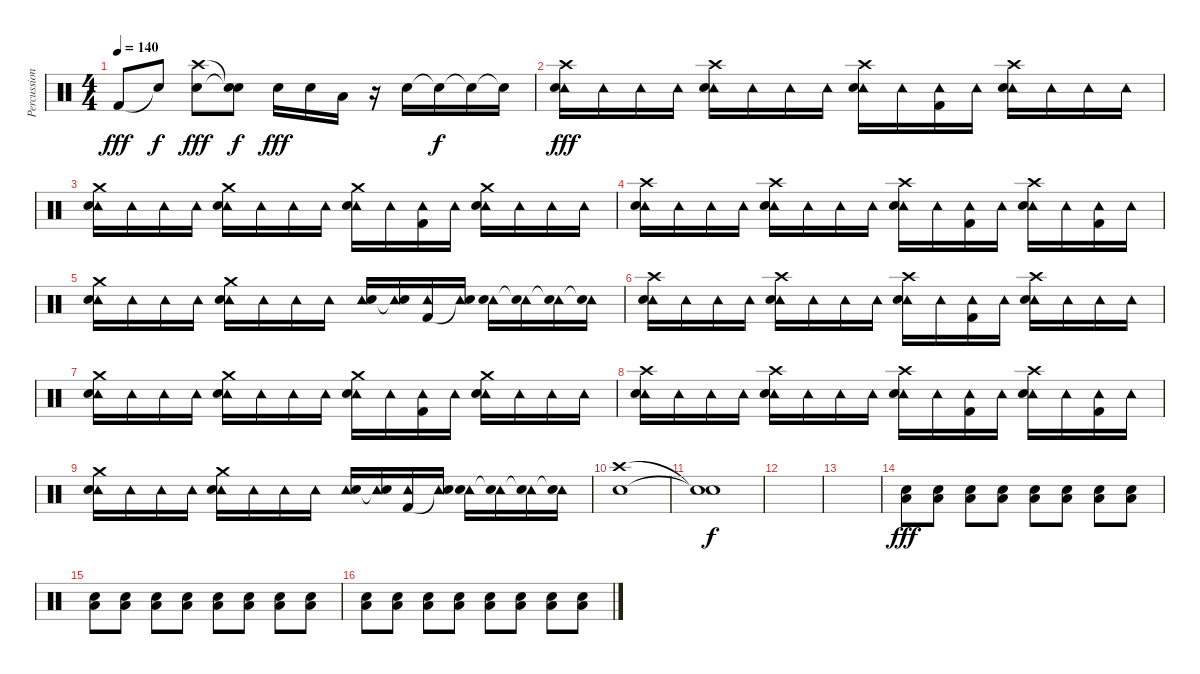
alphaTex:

\track ("Percussion" "Percussion") {instrument percussion}
\staff {score}
\articulation defaults
\ts (4 4)
\tempo 140
\clef neutral
\ks c "Kick (hit) 2".8{dy fff} "Snare (hit)"{t}.8{dy f}
("Crash high (hit)" "Electric Snare (hit)").8{dy fff} ("Snare (hit)"{t} "Snare (hit)"{t}).8{dy f} "Electric Snare (hit)".16{dy fff} "Electric Snare (hit)".16 "Low Floor Tom (hit)".16 r.16 "Electric Snare (hit)".16 "Snare (hit)"{t}.16{dy f} "Snare (hit)"{t}.16 "Snare (hit)"{t}.16 |
("Crash high (hit)" "Tambourine (hit)" "Electric Snare (hit)").16{dy fff} "Tambourine (hit)".16 "Tambourine (hit)".16 "Tambourine (hit)".16 ("Crash high (hit)" "Tambourine (hit)" "Electric Snare (hit)").16 "Tambourine (hit)".16 "Tambourine (hit)".16 "Tambourine (hit)".16 ("Crash high (hit)" "Tambourine (hit)" "Electric Snare (hit)").16 "Tambourine (hit)".16 ("Tambourine (hit)" "Kick (hit) 2").16 "Tambourine (hit)".16 ("Crash high (hit)" "Tambourine (hit)" "Electric Snare (hit)").16 "Tambourine (hit)".16 "Tambourine (hit)".16 "Tambourine (hit)".16 |
("Crash medium (hit)" "Tambourine (hit)" "Electric Snare (hit)").16 "Tambourine (hit)".16 "Tambourine (hit)".16 "Tambourine (hit)".16 ("Crash medium (hit)" "Tambourine (hit)" "Electric Snare (hit)").16 "Tambourine (hit)".16 "Tambourine (hit)".16 "Tambourine (hit)".16 ("Crash medium (hit)" "Tambourine (hit)" "Electric Snare (hit)").16 "Tambourine (hit)".16 ("Tambourine (hit)" "Kick (hit) 2").16 "Tambourine (hit)".16 ("Crash medium (hit)" "Tambourine (hit)" "Electric Snare (hit)").16 "Tambourine (hit)".16 "Tambourine (hit)".16 "Tambourine (hit)".16 |
("Crash high (hit)" "Tambourine (hit)" "Electric Snare (hit)").16 "Tambourine (hit)".16 "Tambourine (hit)".16 "Tambourine (hit)".16 ("Crash high (hit)" "Tambourine (hit)" "Electric Snare (hit)").16 "Tambourine (hit)".16 "Tambourine (hit)".16 "Tambourine (hit)".16 ("Crash high (hit)" "Tambourine (hit)" "Electric Snare (hit)").16 "Tambourine (hit)".16 ("Tambourine (hit)" "Kick (hit) 2").16 "Tambourine (hit)".16 ("Crash high (hit)" "Tambourine (hit)" "Electric Snare (hit)").16 "Tambourine (hit)".16 ("Tambourine (hit)" "Kick (hit) 2").16 "Tambourine (hit)".16 |
("Crash medium (hit)" "Tambourine (hit)" "Electric Snare (hit)").16 "Tambourine (hit)".16 "Tambourine (hit)".16 "Tambourine (hit)".16 ("Crash medium (hit)" "Tambourine (hit)" "Electric Snare (hit)").16 "Tambourine (hit)".16 "Tambourine (hit)".16 "Tambourine (hit)".16 ("Tambourine (hit)" "Electric Snare (hit)").16 ("Tambourine (hit)" "Electric Snare (hit)"{t}).16 ("Tambourine (hit)" "Kick (hit) 2").16 ("Tambourine (hit)" "Snare (hit)"{t}).16 ("Tambourine (hit)" "Electric Snare (hit)").16 ("Tambourine (hit)" "Electric Snare (hit)"{t}).16 ("Tambourine (hit)" "Electric Snare (hit)"{t}).16 ("Tambourine (hit)" "Snare (hit)"{t}).16 |
("Crash high (hit)" "Tambourine (hit)" "Electric Snare (hit)").16 "Tambourine (hit)".16 "Tambourine (hit)".16 "Tambourine (hit)".16 ("Crash high (hit)" "Tambourine (hit)" "Electric Snare (hit)").16 "Tambourine (hit)".16 "Tambourine (hit)".16 "Tambourine (hit)".16 ("Crash high (hit)" "Tambourine (hit)" "Electric Snare (hit)").16 "Tambourine (hit)".16 ("Tambourine (hit)" "Kick (hit) 2").16 "Tambourine (hit)".16 ("Crash high (hit)" "Tambourine (hit)" "Electric Snare (hit)").16 "Tambourine (hit)".16 "Tambourine (hit)".16 "Tambourine (hit)".16 |
("Crash medium (hit)" "Tambourine (hit)" "Electric Snare (hit)").16 "Tambourine (hit)".16 "Tambourine (hit)".16 "Tambourine (hit)".16 ("Crash medium (hit)" "Tambourine (hit)" "Electric Snare (hit)").16 "Tambourine (hit)".16 "Tambourine (hit)".16 "Tambourine (hit)".16 ("Crash medium (hit)" "Tambourine (hit)" "Electric Snare (hit)").16 "Tambourine (hit)".16 ("Tambourine (hit)" "Kick (hit) 2").16 "Tambourine (hit)".16 ("Crash medium (hit)" "Tambourine (hit)" "Electric Snare (hit)").16 "Tambourine (hit)".16 "Tambourine (hit)".16 "Tambourine (hit)".16 |
("Crash high (hit)" "Tambourine (hit)" "Electric Snare (hit)").16 "Tambourine (hit)".16 "Tambourine (hit)".16 "Tambourine (hit)".16 ("Crash high (hit)" "Tambourine (hit)" "Electric Snare (hit)").16 "Tambourine (hit)".16 "Tambourine (hit)".16 "Tambourine (hit)".16 ("Crash high (hit)" "Tambourine (hit)" "Electric Snare (hit)").16 "Tambourine (hit)".16 ("Tambourine (hit)" "Kick (hit) 2").16 "Tambourine (hit)".16 ("Crash high (hit)" "Tambourine (hit)" "Electric Snare (hit)").16 "Tambourine (hit)".16 ("Tambourine (hit)" "Kick (hit) 2").16 "Tambourine (hit)".16 |
("Crash medium (hit)" "Tambourine (hit)" "Electric Snare (hit)").16 "Tambourine (hit)".16 "Tambourine (hit)".16 "Tambourine (hit)".16 ("Crash medium (hit)" "Tambourine (hit)" "Electric Snare (hit)").16 "Tambourine (hit)".16 "Tambourine (hit)".16 "Tambourine (hit)".16 ("Tambourine (hit)" "Electric Snare (hit)").16 ("Tambourine (hit)" "Electric Snare (hit)"{t}).16 ("Tambourine (hit)" "Kick (hit) 2").16 ("Tambourine (hit)" "Snare (hit)"{t}).16 ("Tambourine (hit)" "Electric Snare (hit)").16 ("Tambourine (hit)" "Electric Snare (hit)"{t}).16 ("Tambourine (hit)" "Electric Snare (hit)"{t}).16 ("Tambourine (hit)" "Snare (hit)"{t}).16 |
("Crash high (hit)" "Electric Snare (hit)").1 |
("Snare (hit)"{t} "Snare (hit)"{t}).1{dy f} |
|
|
("Electric Snare (hit)" "Low Floor Tom (hit)").8{dy fff} ("Electric Snare (hit)" "Low Floor Tom (hit)").8 ("Electric Snare (hit)" "Low Floor Tom (hit)").8 ("Electric Snare (hit)" "Low Floor Tom (hit)").8 ("Electric Snare (hit)" "Low Floor Tom (hit)").8 ("Electric Snare (hit)" "Low Floor Tom (hit)").8 ("Electric Snare (hit)" "Low Floor Tom (hit)").8 ("Electric Snare (hit)" "Low Floor Tom (hit)").8 |
("Electric Snare (hit)" "Low Floor Tom (hit)").8 ("Electric Snare (hit)" "Low Floor Tom (hit)").8 ("Electric Snare (hit)" "Low Floor Tom (hit)").8 ("Electric Snare (hit)" "Low Floor Tom (hit)").8 ("Electric Snare (hit)" "Low Floor Tom (hit)").8 ("Electric Snare (hit)" "Low Floor Tom (hit)").8 ("Electric Snare (hit)" "Low Floor Tom (hit)").8 ("Electric Snare (hit)" "Low Floor Tom (hit)").8 |
("Electric Snare (hit)" "Low Floor Tom (hit)").8 ("Electric Snare (hit)" "Low Floor Tom (hit)").8 ("Electric Snare (hit)" "Low Floor Tom (hit)").8 ("Electric Snare (hit)" "Low Floor Tom (hit)").8 ("Electric Snare (hit)" "Low Floor Tom (hit)").8 ("Electric Snare (hit)" "Low Floor Tom (hit)").8 ("Electric Snare (hit)" "Low Floor Tom (hit)").8 ("Electric Snare (hit)" "Low Floor Tom (hit)").8
